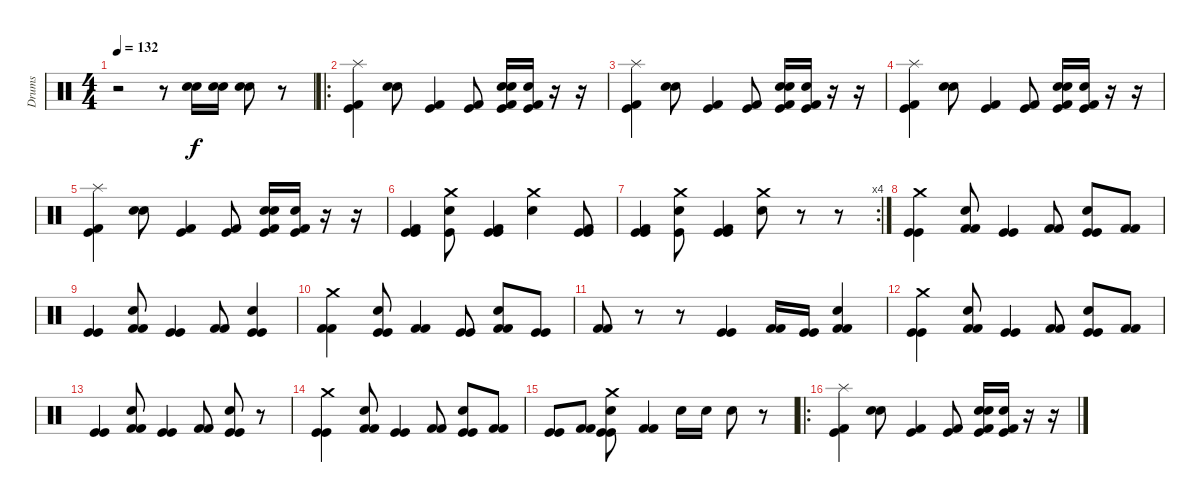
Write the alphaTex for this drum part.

\track ("Drums" "Drums") {instrument percussion}
\staff {score}
\articulation defaults
\ts (4 4)
\tempo 132
\clef neutral
\ks c
r.2{dy f} r.8 ("Electric Snare (hit)" "Electric Snare (hit)").16 ("Electric Snare (hit)" "Electric Snare (hit)").16 ("Electric Snare (hit)" "Electric Snare (hit)").8 r.8 |
\ro
("Splash (hit)" "Kick (hit)" "Kick (hit) 2").4 ("Electric Snare (hit)" "Electric Snare (hit)").8 ("Kick (hit)" "Kick (hit) 2").4 ("Kick (hit)" "Kick (hit) 2").8 ("Electric Snare (hit)" "Electric Snare (hit)" "Kick (hit) 2" "Kick (hit)").16 ("Electric Snare (hit)" "Kick (hit) 2" "Kick (hit)").16 r.16 r.16 |
("Splash (hit)" "Kick (hit)" "Kick (hit) 2").4 ("Electric Snare (hit)" "Electric Snare (hit)").8 ("Kick (hit)" "Kick (hit) 2").4 ("Kick (hit)" "Kick (hit) 2").8 ("Electric Snare (hit)" "Electric Snare (hit)" "Kick (hit) 2" "Kick (hit)").16 ("Electric Snare (hit)" "Kick (hit) 2" "Kick (hit)").16 r.16 r.16 |
("Splash (hit)" "Kick (hit)" "Kick (hit) 2").4 ("Electric Snare (hit)" "Electric Snare (hit)").8 ("Kick (hit)" "Kick (hit) 2").4 ("Kick (hit)" "Kick (hit) 2").8 ("Electric Snare (hit)" "Electric Snare (hit)" "Kick (hit) 2" "Kick (hit)").16 ("Electric Snare (hit)" "Kick (hit) 2" "Kick (hit)").16 r.16 r.16 |
("Splash (hit)" "Kick (hit)" "Kick (hit) 2").4 ("Electric Snare (hit)" "Electric Snare (hit)").8 ("Kick (hit)" "Kick (hit) 2").4 ("Kick (hit)" "Kick (hit) 2").8 ("Electric Snare (hit)" "Electric Snare (hit)" "Kick (hit) 2" "Kick (hit)").16 ("Electric Snare (hit)" "Kick (hit) 2" "Kick (hit)").16 r.16 r.16 |
("Kick (hit)" "Kick (hit) 2" "Kick (hit)").4 ("Crash medium (hit)" "Electric Snare (hit)" "Kick (hit)").8 ("Kick (hit)" "Kick (hit) 2" "Kick (hit)").4 ("Crash medium (hit)" "Electric Snare (hit)").4 ("Kick (hit)" "Kick (hit) 2" "Kick (hit)").8 |
\rc 4
("Kick (hit)" "Kick (hit) 2" "Kick (hit)").4 ("Crash medium (hit)" "Electric Snare (hit)" "Kick (hit)").8 ("Kick (hit)" "Kick (hit) 2" "Kick (hit)").4 ("Crash medium (hit)" "Electric Snare (hit)").8 r.8 r.8 |
("Crash medium (hit)" "Kick (hit)" "Kick (hit)").4 ("Electric Snare (hit)" "Kick (hit) 2" "Kick (hit) 2").8 ("Kick (hit)" "Kick (hit)").4 ("Kick (hit) 2" "Kick (hit) 2").8 ("Electric Snare (hit)" "Kick (hit)" "Kick (hit)").8 ("Kick (hit) 2" "Kick (hit) 2").8 |
("Kick (hit)" "Kick (hit)").4 ("Electric Snare (hit)" "Kick (hit) 2" "Kick (hit) 2").8 ("Kick (hit)" "Kick (hit)").4 ("Kick (hit) 2" "Kick (hit) 2").8 ("Electric Snare (hit)" "Kick (hit)" "Kick (hit)").4 |
("Crash medium (hit)" "Kick (hit) 2" "Kick (hit) 2").4 ("Electric Snare (hit)" "Kick (hit)" "Kick (hit)").8 ("Kick (hit) 2" "Kick (hit) 2").4 ("Kick (hit)" "Kick (hit)").8 ("Electric Snare (hit)" "Kick (hit) 2" "Kick (hit) 2").8 ("Kick (hit)" "Kick (hit)").8 |
("Kick (hit) 2" "Kick (hit) 2").8 r.8 r.8 ("Kick (hit)" "Kick (hit)").4 ("Kick (hit) 2" "Kick (hit) 2").16 ("Kick (hit)" "Kick (hit)").16 ("Electric Snare (hit)" "Kick (hit) 2" "Kick (hit) 2").4 |
("Crash medium (hit)" "Kick (hit)" "Kick (hit)").4 ("Electric Snare (hit)" "Kick (hit) 2" "Kick (hit) 2").8 ("Kick (hit)" "Kick (hit)").4 ("Kick (hit) 2" "Kick (hit) 2").8 ("Electric Snare (hit)" "Kick (hit)" "Kick (hit)").8 ("Kick (hit) 2" "Kick (hit) 2").8 |
("Kick (hit)" "Kick (hit)").4 ("Electric Snare (hit)" "Kick (hit) 2" "Kick (hit) 2").8 ("Kick (hit)" "Kick (hit)").4 ("Kick (hit) 2" "Kick (hit) 2").8 ("Electric Snare (hit)" "Kick (hit)" "Kick (hit)").8 r.8 |
("Crash medium (hit)" "Kick (hit)" "Kick (hit)").4 ("Electric Snare (hit)" "Kick (hit) 2" "Kick (hit) 2").8 ("Kick (hit)" "Kick (hit)").4 ("Kick (hit) 2" "Kick (hit) 2").8 ("Electric Snare (hit)" "Kick (hit)" "Kick (hit)").8 ("Kick (hit) 2" "Kick (hit) 2").8 |
("Kick (hit)" "Kick (hit)").8 ("Kick (hit) 2" "Kick (hit) 2").8 ("Crash medium (hit)" "Electric Snare (hit)" "Kick (hit)" "Kick (hit)").8 ("Kick (hit) 2" "Kick (hit) 2").4 "Electric Snare (hit)".16 "Electric Snare (hit)".16 "Electric Snare (hit)".8 r.8 |
\ro
("Splash (hit)" "Kick (hit)" "Kick (hit) 2").4 ("Electric Snare (hit)" "Electric Snare (hit)").8 ("Kick (hit)" "Kick (hit) 2").4 ("Kick (hit)" "Kick (hit) 2").8 ("Electric Snare (hit)" "Electric Snare (hit)" "Kick (hit) 2" "Kick (hit)").16 ("Electric Snare (hit)" "Kick (hit) 2" "Kick (hit)").16 r.16 r.16
